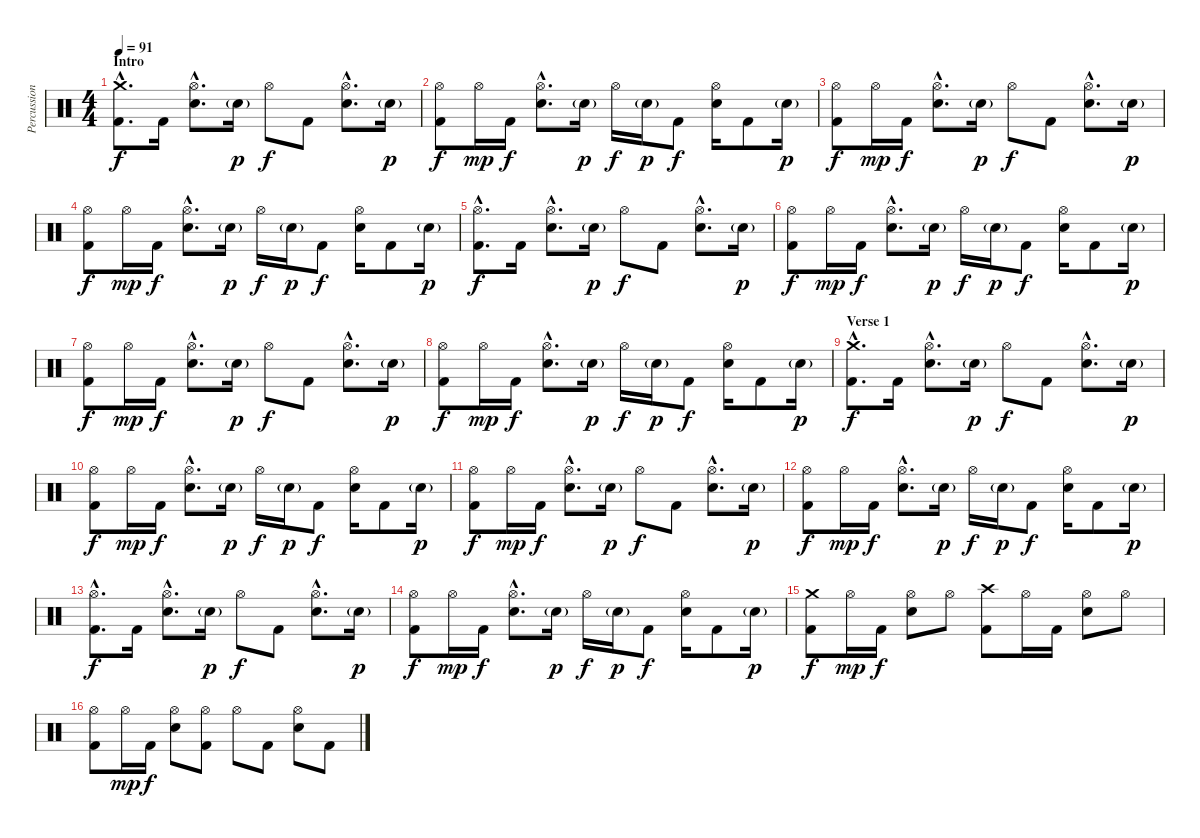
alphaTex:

\track ("Percussion" "Percussion") {instrument percussion}
\staff {score}
\articulation defaults
\ts (4 4)
\section ("" "Intro")
\tempo 91
\clef neutral
\ks c
("Crash medium (hit)"{hac} "Kick (hit) 2"{hac}).8{d dy f} "Kick (hit) 2".16 ("Hi-Hat (open)"{hac} "Electric Snare (hit)"{hac}).8{d} "Electric Snare (hit)"{g}.16{dy p} "Hi-Hat (open)".8{dy f} "Kick (hit) 2".8 ("Hi-Hat (open)"{hac} "Electric Snare (hit)"{hac}).8{d} "Electric Snare (hit)"{g}.16{dy p} |
("Hi-Hat (open)" "Kick (hit) 2").8{dy f} "Hi-Hat (open)".16{dy mp} "Kick (hit) 2".16{dy f} ("Hi-Hat (open)"{hac} "Electric Snare (hit)"{hac}).8{d} "Electric Snare (hit)"{g}.16{dy p} "Hi-Hat (open)".16{dy f} "Electric Snare (hit)"{g}.16{dy p} "Kick (hit) 2".8{dy f} ("Hi-Hat (open)" "Electric Snare (hit)").16 "Kick (hit) 2".8 "Electric Snare (hit)"{g}.16{dy p} |
("Hi-Hat (open)" "Kick (hit) 2").8{dy f} "Hi-Hat (open)".16{dy mp} "Kick (hit) 2".16{dy f} ("Hi-Hat (open)"{hac} "Electric Snare (hit)"{hac}).8{d} "Electric Snare (hit)"{g}.16{dy p} "Hi-Hat (open)".8{dy f} "Kick (hit) 2".8 ("Hi-Hat (open)"{hac} "Electric Snare (hit)"{hac}).8{d} "Electric Snare (hit)"{g}.16{dy p} |
("Hi-Hat (open)" "Kick (hit) 2").8{dy f} "Hi-Hat (open)".16{dy mp} "Kick (hit) 2".16{dy f} ("Hi-Hat (open)"{hac} "Electric Snare (hit)"{hac}).8{d} "Electric Snare (hit)"{g}.16{dy p} "Hi-Hat (open)".16{dy f} "Electric Snare (hit)"{g}.16{dy p} "Kick (hit) 2".8{dy f} ("Hi-Hat (open)" "Electric Snare (hit)").16 "Kick (hit) 2".8 "Electric Snare (hit)"{g}.16{dy p} |
("Hi-Hat (open)"{hac} "Kick (hit) 2"{hac}).8{d dy f} "Kick (hit) 2".16 ("Hi-Hat (open)"{hac} "Electric Snare (hit)"{hac}).8{d} "Electric Snare (hit)"{g}.16{dy p} "Hi-Hat (open)".8{dy f} "Kick (hit) 2".8 ("Hi-Hat (open)"{hac} "Electric Snare (hit)"{hac}).8{d} "Electric Snare (hit)"{g}.16{dy p} |
("Hi-Hat (open)" "Kick (hit) 2").8{dy f} "Hi-Hat (open)".16{dy mp} "Kick (hit) 2".16{dy f} ("Hi-Hat (open)"{hac} "Electric Snare (hit)"{hac}).8{d} "Electric Snare (hit)"{g}.16{dy p} "Hi-Hat (open)".16{dy f} "Electric Snare (hit)"{g}.16{dy p} "Kick (hit) 2".8{dy f} ("Hi-Hat (open)" "Electric Snare (hit)").16 "Kick (hit) 2".8 "Electric Snare (hit)"{g}.16{dy p} |
("Hi-Hat (open)" "Kick (hit) 2").8{dy f} "Hi-Hat (open)".16{dy mp} "Kick (hit) 2".16{dy f} ("Hi-Hat (open)"{hac} "Electric Snare (hit)"{hac}).8{d} "Electric Snare (hit)"{g}.16{dy p} "Hi-Hat (open)".8{dy f} "Kick (hit) 2".8 ("Hi-Hat (open)"{hac} "Electric Snare (hit)"{hac}).8{d} "Electric Snare (hit)"{g}.16{dy p} |
("Hi-Hat (open)" "Kick (hit) 2").8{dy f} "Hi-Hat (open)".16{dy mp} "Kick (hit) 2".16{dy f} ("Hi-Hat (open)"{hac} "Electric Snare (hit)"{hac}).8{d} "Electric Snare (hit)"{g}.16{dy p} "Hi-Hat (open)".16{dy f} "Electric Snare (hit)"{g}.16{dy p} "Kick (hit) 2".8{dy f} ("Hi-Hat (open)" "Electric Snare (hit)").16 "Kick (hit) 2".8 "Electric Snare (hit)"{g}.16{dy p} |
\section ("" "Verse 1")
("Crash medium (hit)"{hac} "Kick (hit) 2"{hac}).8{d dy f} "Kick (hit) 2".16 ("Hi-Hat (open)"{hac} "Electric Snare (hit)"{hac}).8{d} "Electric Snare (hit)"{g}.16{dy p} "Hi-Hat (open)".8{dy f} "Kick (hit) 2".8 ("Hi-Hat (open)"{hac} "Electric Snare (hit)"{hac}).8{d} "Electric Snare (hit)"{g}.16{dy p} |
("Hi-Hat (open)" "Kick (hit) 2").8{dy f} "Hi-Hat (open)".16{dy mp} "Kick (hit) 2".16{dy f} ("Hi-Hat (open)"{hac} "Electric Snare (hit)"{hac}).8{d} "Electric Snare (hit)"{g}.16{dy p} "Hi-Hat (open)".16{dy f} "Electric Snare (hit)"{g}.16{dy p} "Kick (hit) 2".8{dy f} ("Hi-Hat (open)" "Electric Snare (hit)").16 "Kick (hit) 2".8 "Electric Snare (hit)"{g}.16{dy p} |
("Hi-Hat (open)" "Kick (hit) 2").8{dy f} "Hi-Hat (open)".16{dy mp} "Kick (hit) 2".16{dy f} ("Hi-Hat (open)"{hac} "Electric Snare (hit)"{hac}).8{d} "Electric Snare (hit)"{g}.16{dy p} "Hi-Hat (open)".8{dy f} "Kick (hit) 2".8 ("Hi-Hat (open)"{hac} "Electric Snare (hit)"{hac}).8{d} "Electric Snare (hit)"{g}.16{dy p} |
("Hi-Hat (open)" "Kick (hit) 2").8{dy f} "Hi-Hat (open)".16{dy mp} "Kick (hit) 2".16{dy f} ("Hi-Hat (open)"{hac} "Electric Snare (hit)"{hac}).8{d} "Electric Snare (hit)"{g}.16{dy p} "Hi-Hat (open)".16{dy f} "Electric Snare (hit)"{g}.16{dy p} "Kick (hit) 2".8{dy f} ("Hi-Hat (open)" "Electric Snare (hit)").16 "Kick (hit) 2".8 "Electric Snare (hit)"{g}.16{dy p} |
("Hi-Hat (open)"{hac} "Kick (hit) 2"{hac}).8{d dy f} "Kick (hit) 2".16 ("Hi-Hat (open)"{hac} "Electric Snare (hit)"{hac}).8{d} "Electric Snare (hit)"{g}.16{dy p} "Hi-Hat (open)".8{dy f} "Kick (hit) 2".8 ("Hi-Hat (open)"{hac} "Electric Snare (hit)"{hac}).8{d} "Electric Snare (hit)"{g}.16{dy p} |
("Hi-Hat (open)" "Kick (hit) 2").8{dy f} "Hi-Hat (open)".16{dy mp} "Kick (hit) 2".16{dy f} ("Hi-Hat (open)"{hac} "Electric Snare (hit)"{hac}).8{d} "Electric Snare (hit)"{g}.16{dy p} "Hi-Hat (open)".16{dy f} "Electric Snare (hit)"{g}.16{dy p} "Kick (hit) 2".8{dy f} ("Hi-Hat (open)" "Electric Snare (hit)").16 "Kick (hit) 2".8 "Electric Snare (hit)"{g}.16{dy p} |
("Crash medium (hit)" "Kick (hit) 2").8{dy f} "Hi-Hat (open)".16{dy mp} "Kick (hit) 2".16{dy f} ("Hi-Hat (open)" "Electric Snare (hit)").8 "Hi-Hat (open)".8 ("Crash high (hit)" "Kick (hit) 2").8 "Hi-Hat (open)".16 "Kick (hit) 2".16 ("Hi-Hat (open)" "Electric Snare (hit)").8 "Hi-Hat (open)".8 |
("Hi-Hat (open)" "Kick (hit) 2").8 "Hi-Hat (open)".16{dy mp} "Kick (hit) 2".16{dy f} ("Hi-Hat (open)" "Electric Snare (hit)").8 ("Hi-Hat (open)" "Kick (hit) 2").8 "Hi-Hat (open)".8 "Kick (hit) 2".8 ("Hi-Hat (open)" "Electric Snare (hit)").8 "Kick (hit) 2".8
